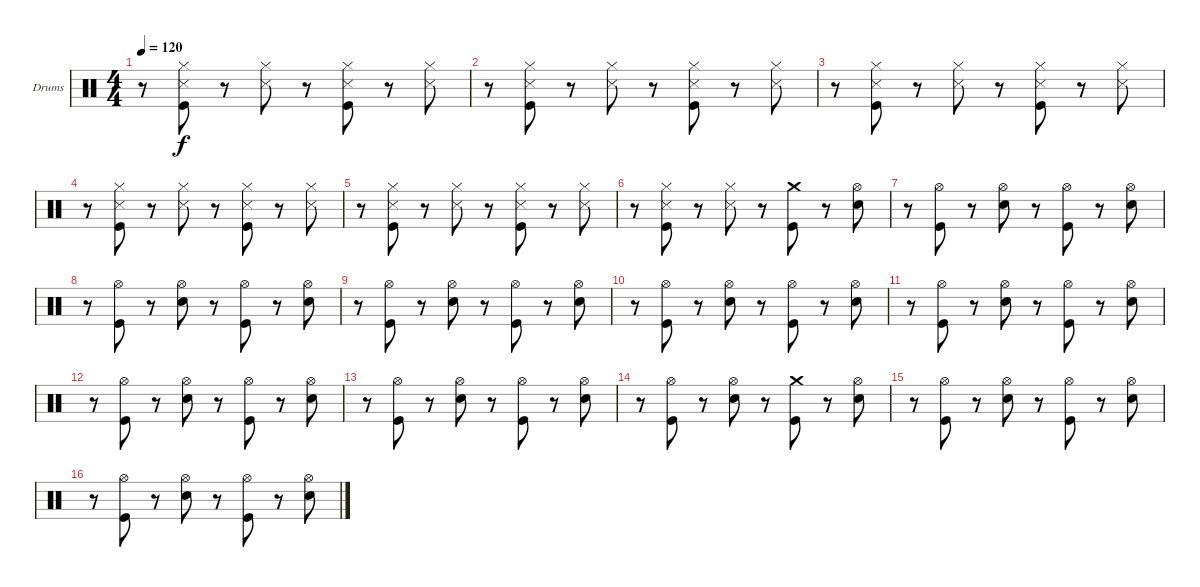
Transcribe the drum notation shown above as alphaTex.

\defaultSystemsLayout 4
\bracketExtendMode groupsimilarinstruments
\firstSystemTrackNameOrientation horizontal
\otherSystemsTrackNameOrientation horizontal
\track ("Drumkit" "Drums") {instrument percussion}
\staff {score}
\articulation defaults
\ts (4 4)
\tempo 120
\clef neutral
\ks c
r.8{dy f} ("Hi-Hat (closed)" "Snare (side stick) 3" "Kick (hit)").8 r.8 ("Hi-Hat (closed)" "Snare (side stick) 3").8 r.8 ("Hi-Hat (closed)" "Snare (side stick) 3" "Kick (hit)").8 r.8 ("Hi-Hat (closed)" "Snare (side stick) 3").8 |
r.8 ("Hi-Hat (closed)" "Snare (side stick) 3" "Kick (hit)").8 r.8 ("Hi-Hat (closed)" "Snare (side stick) 3").8 r.8 ("Hi-Hat (closed)" "Snare (side stick) 3" "Kick (hit)").8 r.8 ("Hi-Hat (closed)" "Snare (side stick) 3").8 |
r.8 ("Hi-Hat (closed)" "Snare (side stick) 3" "Kick (hit)").8 r.8 ("Hi-Hat (closed)" "Snare (side stick) 3").8 r.8 ("Hi-Hat (closed)" "Snare (side stick) 3" "Kick (hit)").8 r.8 ("Hi-Hat (closed)" "Snare (side stick) 3").8 |
r.8 ("Hi-Hat (closed)" "Snare (side stick) 3" "Kick (hit)").8 r.8 ("Hi-Hat (closed)" "Snare (side stick) 3").8 r.8 ("Hi-Hat (closed)" "Snare (side stick) 3" "Kick (hit)").8 r.8 ("Hi-Hat (closed)" "Snare (side stick) 3").8 |
r.8 ("Hi-Hat (closed)" "Snare (side stick) 3" "Kick (hit)").8 r.8 ("Hi-Hat (closed)" "Snare (side stick) 3").8 r.8 ("Hi-Hat (closed)" "Snare (side stick) 3" "Kick (hit)").8 r.8 ("Hi-Hat (closed)" "Snare (side stick) 3").8 |
r.8 ("Hi-Hat (closed)" "Snare (side stick) 3" "Kick (hit)").8 r.8 ("Hi-Hat (closed)" "Snare (side stick) 3").8 r.8 ("Crash medium (hit)" "Kick (hit)").8 r.8 ("Hi-Hat (open)" "Snare (hit) 2").8 |
r.8 ("Hi-Hat (open)" "Kick (hit)").8 r.8 ("Hi-Hat (open)" "Snare (hit) 2").8 r.8 ("Hi-Hat (open)" "Kick (hit)").8 r.8 ("Hi-Hat (open)" "Snare (hit) 2").8 |
r.8 ("Hi-Hat (open)" "Kick (hit)").8 r.8 ("Hi-Hat (open)" "Snare (hit) 2").8 r.8 ("Hi-Hat (open)" "Kick (hit)").8 r.8 ("Hi-Hat (open)" "Snare (hit) 2").8 |
r.8 ("Hi-Hat (open)" "Kick (hit)").8 r.8 ("Hi-Hat (open)" "Snare (hit) 2").8 r.8 ("Hi-Hat (open)" "Kick (hit)").8 r.8 ("Hi-Hat (open)" "Snare (hit) 2").8 |
r.8 ("Hi-Hat (open)" "Kick (hit)").8 r.8 ("Hi-Hat (open)" "Snare (hit) 2").8 r.8 ("Hi-Hat (open)" "Kick (hit)").8 r.8 ("Hi-Hat (open)" "Snare (hit) 2").8 |
r.8 ("Hi-Hat (open)" "Kick (hit)").8 r.8 ("Hi-Hat (open)" "Snare (hit) 2").8 r.8 ("Hi-Hat (open)" "Kick (hit)").8 r.8 ("Hi-Hat (open)" "Snare (hit) 2").8 |
r.8 ("Hi-Hat (open)" "Kick (hit)").8 r.8 ("Hi-Hat (open)" "Snare (hit) 2").8 r.8 ("Hi-Hat (open)" "Kick (hit)").8 r.8 ("Hi-Hat (open)" "Snare (hit) 2").8 |
r.8 ("Hi-Hat (open)" "Kick (hit)").8 r.8 ("Hi-Hat (open)" "Snare (hit) 2").8 r.8 ("Hi-Hat (open)" "Kick (hit)").8 r.8 ("Hi-Hat (open)" "Snare (hit) 2").8 |
r.8 ("Hi-Hat (open)" "Kick (hit)").8 r.8 ("Hi-Hat (open)" "Snare (hit) 2").8 r.8 ("Crash medium (hit)" "Kick (hit)").8 r.8 ("Hi-Hat (open)" "Snare (hit) 2").8 |
r.8 ("Hi-Hat (open)" "Kick (hit)").8 r.8 ("Hi-Hat (open)" "Snare (hit) 2").8 r.8 ("Hi-Hat (open)" "Kick (hit)").8 r.8 ("Hi-Hat (open)" "Snare (hit) 2").8 |
r.8 ("Hi-Hat (open)" "Kick (hit)").8 r.8 ("Hi-Hat (open)" "Snare (hit) 2").8 r.8 ("Hi-Hat (open)" "Kick (hit)").8 r.8 ("Hi-Hat (open)" "Snare (hit) 2").8
